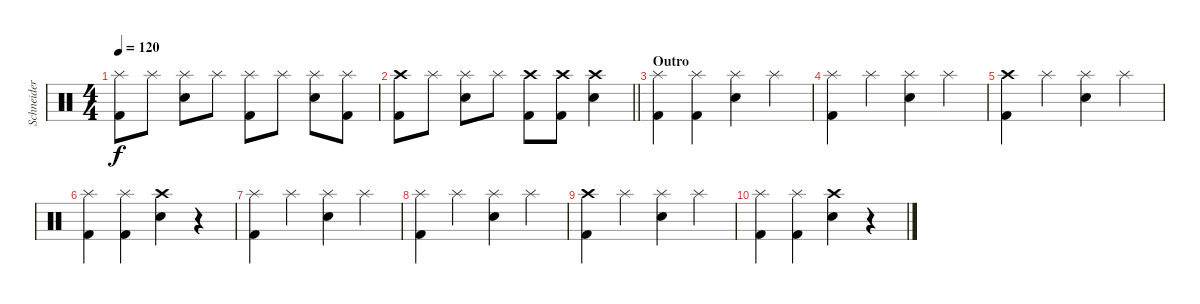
\track ("Schneider" "Schneider") {instrument percussion}
\staff {score}
\articulation defaults
\ts (4 4)
\tempo 120
\clef neutral
\ks c
("Splash (hit)" "Kick (hit) 2").8{dy f} "Splash (hit)".8 ("Splash (hit)" "Electric Snare (hit)").8 "Splash (hit)".8 ("Splash (hit)" "Kick (hit) 2").8 "Splash (hit)".8 ("Splash (hit)" "Electric Snare (hit)").8 ("Splash (hit)" "Kick (hit) 2").8 |
\barLineRight lightlight
("Crash high (hit)" "Kick (hit) 2").8 "Splash (hit)".8 ("Splash (hit)" "Electric Snare (hit)").8 "Splash (hit)".8 ("Crash high (hit)" "Kick (hit) 2").8 ("Crash high (hit)" "Kick (hit) 2").8 ("Crash high (hit)" "Electric Snare (hit)").4 |
\section ("" "Outro")
("Splash (hit)" "Kick (hit) 2").4 ("Splash (hit)" "Kick (hit) 2").4 ("Splash (hit)" "Electric Snare (hit)").4 "Splash (hit)".4 |
("Splash (hit)" "Kick (hit) 2").4 "Splash (hit)".4 ("Splash (hit)" "Electric Snare (hit)").4 "Splash (hit)".4 |
("Crash high (hit)" "Kick (hit) 2").4 "Splash (hit)".4 ("Splash (hit)" "Electric Snare (hit)").4 "Splash (hit)".4 |
("Splash (hit)" "Kick (hit) 2").4 ("Splash (hit)" "Kick (hit) 2").4 ("Crash high (hit)" "Electric Snare (hit)").4 r.4 |
("Splash (hit)" "Kick (hit) 2").4 "Splash (hit)".4 ("Splash (hit)" "Electric Snare (hit)").4 "Splash (hit)".4 |
("Splash (hit)" "Kick (hit) 2").4 "Splash (hit)".4 ("Splash (hit)" "Electric Snare (hit)").4 "Splash (hit)".4 |
("Crash high (hit)" "Kick (hit) 2").4 "Splash (hit)".4 ("Splash (hit)" "Electric Snare (hit)").4 "Splash (hit)".4 |
("Splash (hit)" "Kick (hit) 2").4 ("Splash (hit)" "Kick (hit) 2").4 ("Crash high (hit)" "Electric Snare (hit)").4 r.4
